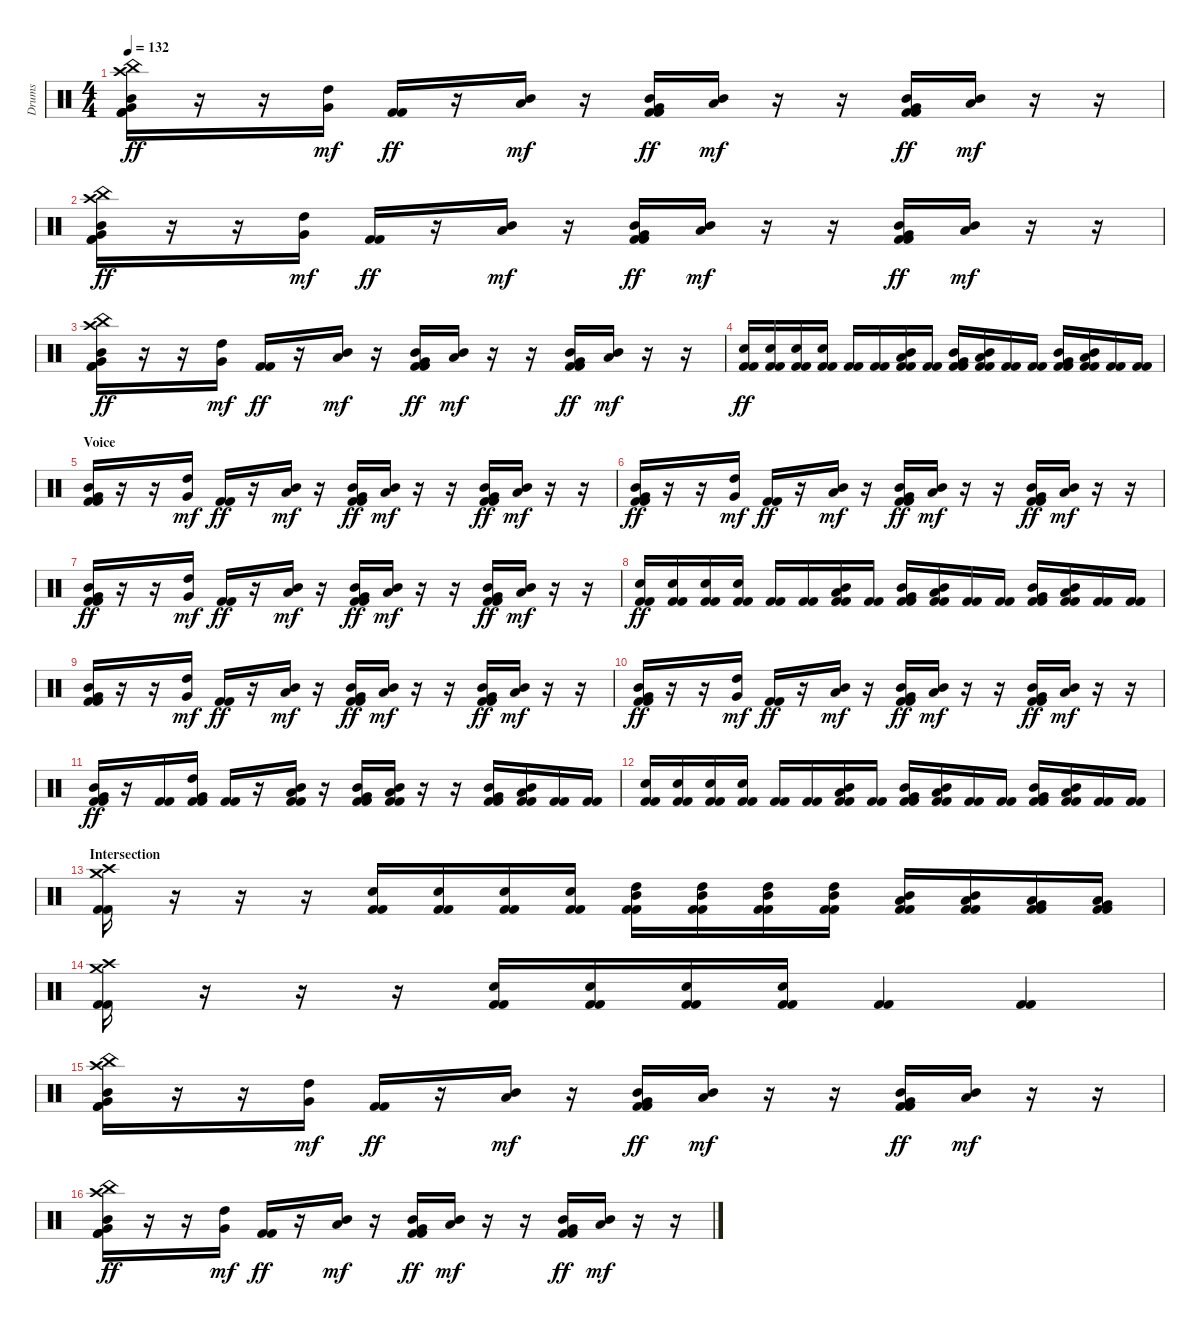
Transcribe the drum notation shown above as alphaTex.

\track ("Drums" "Drums") {instrument percussion}
\staff {score}
\articulation defaults
\ts (4 4)
\tempo 132
\clef neutral
\ks c
("China (hit)" "Mid Tom (hit)" "Very Low Tom (hit)" "Crash high (hit)" "Kick (hit) 2" "Kick (hit) 2").16{dy ff} r.16 r.16 ("High Tom (hit)" "Very Low Tom (hit)").16{dy mf} ("Kick (hit) 2" "Kick (hit) 2").16{dy ff} r.16 ("Mid Tom (hit)" "Low Tom (hit)").16{dy mf} r.16 ("Mid Tom (hit)" "Very Low Tom (hit)" "Kick (hit) 2" "Kick (hit) 2").16{dy ff} ("Low Tom (hit)" "Mid Tom (hit)").16{dy mf} r.16 r.16 ("Mid Tom (hit)" "Very Low Tom (hit)" "Kick (hit) 2" "Kick (hit) 2").16{dy ff} ("Mid Tom (hit)" "Low Tom (hit)").16{dy mf} r.16 r.16 |
("China (hit)" "Mid Tom (hit)" "Very Low Tom (hit)" "Crash high (hit)" "Kick (hit) 2" "Kick (hit) 2").16{dy ff} r.16 r.16 ("High Tom (hit)" "Very Low Tom (hit)").16{dy mf} ("Kick (hit) 2" "Kick (hit) 2").16{dy ff} r.16 ("Mid Tom (hit)" "Low Tom (hit)").16{dy mf} r.16 ("Mid Tom (hit)" "Very Low Tom (hit)" "Kick (hit) 2" "Kick (hit) 2").16{dy ff} ("Low Tom (hit)" "Mid Tom (hit)").16{dy mf} r.16 r.16 ("Mid Tom (hit)" "Very Low Tom (hit)" "Kick (hit) 2" "Kick (hit) 2").16{dy ff} ("Mid Tom (hit)" "Low Tom (hit)").16{dy mf} r.16 r.16 |
("China (hit)" "Mid Tom (hit)" "Very Low Tom (hit)" "Crash high (hit)" "Kick (hit) 2" "Kick (hit) 2").16{dy ff} r.16 r.16 ("High Tom (hit)" "Very Low Tom (hit)").16{dy mf} ("Kick (hit) 2" "Kick (hit) 2").16{dy ff} r.16 ("Mid Tom (hit)" "Low Tom (hit)").16{dy mf} r.16 ("Mid Tom (hit)" "Very Low Tom (hit)" "Kick (hit) 2" "Kick (hit) 2").16{dy ff} ("Low Tom (hit)" "Mid Tom (hit)").16{dy mf} r.16 r.16 ("Mid Tom (hit)" "Very Low Tom (hit)" "Kick (hit) 2" "Kick (hit) 2").16{dy ff} ("Mid Tom (hit)" "Low Tom (hit)").16{dy mf} r.16 r.16 |
("Electric Snare (hit)" "Kick (hit) 2" "Kick (hit) 2").16{dy ff} ("Electric Snare (hit)" "Kick (hit) 2" "Kick (hit) 2").16 ("Electric Snare (hit)" "Kick (hit) 2" "Kick (hit) 2").16 ("Electric Snare (hit)" "Kick (hit) 2" "Kick (hit) 2").16 ("Kick (hit) 2" "Kick (hit) 2").16 ("Kick (hit) 2" "Kick (hit) 2").16 ("Mid Tom (hit)" "Low Tom (hit)" "Kick (hit) 2" "Kick (hit) 2").16 ("Kick (hit) 2" "Kick (hit) 2").16 ("Mid Tom (hit)" "Very Low Tom (hit)" "Kick (hit) 2" "Kick (hit) 2").16 ("Low Tom (hit)" "Mid Tom (hit)" "Kick (hit) 2" "Kick (hit) 2").16 ("Kick (hit) 2" "Kick (hit) 2").16 ("Kick (hit) 2" "Kick (hit) 2").16 ("Mid Tom (hit)" "Very Low Tom (hit)" "Kick (hit) 2" "Kick (hit) 2").16 ("Mid Tom (hit)" "Low Tom (hit)" "Kick (hit) 2" "Kick (hit) 2").16 ("Kick (hit) 2" "Kick (hit) 2").16 ("Kick (hit) 2" "Kick (hit) 2").16 |
\section ("" "Voice")
("Mid Tom (hit)" "Very Low Tom (hit)" "Kick (hit) 2" "Kick (hit) 2").16 r.16 r.16 ("High Tom (hit)" "Very Low Tom (hit)").16{dy mf} ("Kick (hit) 2" "Kick (hit) 2").16{dy ff} r.16 ("Mid Tom (hit)" "Low Tom (hit)").16{dy mf} r.16 ("Mid Tom (hit)" "Very Low Tom (hit)" "Kick (hit) 2" "Kick (hit) 2").16{dy ff} ("Low Tom (hit)" "Mid Tom (hit)").16{dy mf} r.16 r.16 ("Mid Tom (hit)" "Very Low Tom (hit)" "Kick (hit) 2" "Kick (hit) 2").16{dy ff} ("Mid Tom (hit)" "Low Tom (hit)").16{dy mf} r.16 r.16 |
("Mid Tom (hit)" "Very Low Tom (hit)" "Kick (hit) 2" "Kick (hit) 2").16{dy ff} r.16 r.16 ("High Tom (hit)" "Very Low Tom (hit)").16{dy mf} ("Kick (hit) 2" "Kick (hit) 2").16{dy ff} r.16 ("Mid Tom (hit)" "Low Tom (hit)").16{dy mf} r.16 ("Mid Tom (hit)" "Very Low Tom (hit)" "Kick (hit) 2" "Kick (hit) 2").16{dy ff} ("Low Tom (hit)" "Mid Tom (hit)").16{dy mf} r.16 r.16 ("Mid Tom (hit)" "Very Low Tom (hit)" "Kick (hit) 2" "Kick (hit) 2").16{dy ff} ("Mid Tom (hit)" "Low Tom (hit)").16{dy mf} r.16 r.16 |
("Mid Tom (hit)" "Very Low Tom (hit)" "Kick (hit) 2" "Kick (hit) 2").16{dy ff} r.16 r.16 ("High Tom (hit)" "Very Low Tom (hit)").16{dy mf} ("Kick (hit) 2" "Kick (hit) 2").16{dy ff} r.16 ("Mid Tom (hit)" "Low Tom (hit)").16{dy mf} r.16 ("Mid Tom (hit)" "Very Low Tom (hit)" "Kick (hit) 2" "Kick (hit) 2").16{dy ff} ("Low Tom (hit)" "Mid Tom (hit)").16{dy mf} r.16 r.16 ("Mid Tom (hit)" "Very Low Tom (hit)" "Kick (hit) 2" "Kick (hit) 2").16{dy ff} ("Mid Tom (hit)" "Low Tom (hit)").16{dy mf} r.16 r.16 |
("Electric Snare (hit)" "Kick (hit) 2" "Kick (hit) 2").16{dy ff} ("Electric Snare (hit)" "Kick (hit) 2" "Kick (hit) 2").16 ("Electric Snare (hit)" "Kick (hit) 2" "Kick (hit) 2").16 ("Electric Snare (hit)" "Kick (hit) 2" "Kick (hit) 2").16 ("Kick (hit) 2" "Kick (hit) 2").16 ("Kick (hit) 2" "Kick (hit) 2").16 ("Mid Tom (hit)" "Low Tom (hit)" "Kick (hit) 2" "Kick (hit) 2").16 ("Kick (hit) 2" "Kick (hit) 2").16 ("Mid Tom (hit)" "Very Low Tom (hit)" "Kick (hit) 2" "Kick (hit) 2").16 ("Low Tom (hit)" "Mid Tom (hit)" "Kick (hit) 2" "Kick (hit) 2").16 ("Kick (hit) 2" "Kick (hit) 2").16 ("Kick (hit) 2" "Kick (hit) 2").16 ("Mid Tom (hit)" "Very Low Tom (hit)" "Kick (hit) 2" "Kick (hit) 2").16 ("Mid Tom (hit)" "Low Tom (hit)" "Kick (hit) 2" "Kick (hit) 2").16 ("Kick (hit) 2" "Kick (hit) 2").16 ("Kick (hit) 2" "Kick (hit) 2").16 |
("Mid Tom (hit)" "Very Low Tom (hit)" "Kick (hit) 2" "Kick (hit) 2").16 r.16 r.16 ("High Tom (hit)" "Very Low Tom (hit)").16{dy mf} ("Kick (hit) 2" "Kick (hit) 2").16{dy ff} r.16 ("Mid Tom (hit)" "Low Tom (hit)").16{dy mf} r.16 ("Mid Tom (hit)" "Very Low Tom (hit)" "Kick (hit) 2" "Kick (hit) 2").16{dy ff} ("Low Tom (hit)" "Mid Tom (hit)").16{dy mf} r.16 r.16 ("Mid Tom (hit)" "Very Low Tom (hit)" "Kick (hit) 2" "Kick (hit) 2").16{dy ff} ("Mid Tom (hit)" "Low Tom (hit)").16{dy mf} r.16 r.16 |
("Mid Tom (hit)" "Very Low Tom (hit)" "Kick (hit) 2" "Kick (hit) 2").16{dy ff} r.16 r.16 ("High Tom (hit)" "Very Low Tom (hit)").16{dy mf} ("Kick (hit) 2" "Kick (hit) 2").16{dy ff} r.16 ("Mid Tom (hit)" "Low Tom (hit)").16{dy mf} r.16 ("Mid Tom (hit)" "Very Low Tom (hit)" "Kick (hit) 2" "Kick (hit) 2").16{dy ff} ("Low Tom (hit)" "Mid Tom (hit)").16{dy mf} r.16 r.16 ("Mid Tom (hit)" "Very Low Tom (hit)" "Kick (hit) 2" "Kick (hit) 2").16{dy ff} ("Mid Tom (hit)" "Low Tom (hit)").16{dy mf} r.16 r.16 |
("Mid Tom (hit)" "Very Low Tom (hit)" "Kick (hit) 2" "Kick (hit) 2").16{dy ff} r.16 ("Kick (hit) 2" "Kick (hit) 2").16 ("High Tom (hit)" "Very Low Tom (hit)" "Kick (hit) 2" "Kick (hit) 2").16 ("Kick (hit) 2" "Kick (hit) 2").16 r.16 ("Mid Tom (hit)" "Low Tom (hit)" "Kick (hit) 2" "Kick (hit) 2").16 r.16 ("Mid Tom (hit)" "Very Low Tom (hit)" "Kick (hit) 2" "Kick (hit) 2").16 ("Low Tom (hit)" "Mid Tom (hit)" "Kick (hit) 2" "Kick (hit) 2").16 r.16 r.16 ("Mid Tom (hit)" "Very Low Tom (hit)" "Kick (hit) 2" "Kick (hit) 2").16 ("Mid Tom (hit)" "Low Tom (hit)" "Kick (hit) 2" "Kick (hit) 2").16 ("Kick (hit) 2" "Kick (hit) 2").16 ("Kick (hit) 2" "Kick (hit) 2").16 |
("Electric Snare (hit)" "Kick (hit) 2" "Kick (hit) 2").16 ("Electric Snare (hit)" "Kick (hit) 2" "Kick (hit) 2").16 ("Electric Snare (hit)" "Kick (hit) 2" "Kick (hit) 2").16 ("Electric Snare (hit)" "Kick (hit) 2" "Kick (hit) 2").16 ("Kick (hit) 2" "Kick (hit) 2").16 ("Kick (hit) 2" "Kick (hit) 2").16 ("Mid Tom (hit)" "Low Tom (hit)" "Kick (hit) 2" "Kick (hit) 2").16 ("Kick (hit) 2" "Kick (hit) 2").16 ("Mid Tom (hit)" "Very Low Tom (hit)" "Kick (hit) 2" "Kick (hit) 2").16 ("Low Tom (hit)" "Mid Tom (hit)" "Kick (hit) 2" "Kick (hit) 2").16 ("Kick (hit) 2" "Kick (hit) 2").16 ("Kick (hit) 2" "Kick (hit) 2").16 ("Mid Tom (hit)" "Very Low Tom (hit)" "Kick (hit) 2" "Kick (hit) 2").16 ("Mid Tom (hit)" "Low Tom (hit)" "Kick (hit) 2" "Kick (hit) 2").16 ("Kick (hit) 2" "Kick (hit) 2").16 ("Kick (hit) 2" "Kick (hit) 2").16 |
\section ("" "Intersection")
("Crash high (hit)" "Crash medium (hit)" "Kick (hit) 2" "Kick (hit) 2").16 r.16 r.16 r.16 ("Electric Snare (hit)" "Kick (hit) 2" "Kick (hit) 2").16 ("Electric Snare (hit)" "Kick (hit) 2" "Kick (hit) 2").16 ("Electric Snare (hit)" "Kick (hit) 2" "Kick (hit) 2").16 ("Electric Snare (hit)" "Kick (hit) 2" "Kick (hit) 2").16 ("High Tom (hit)" "Mid Tom (hit)" "Kick (hit) 2" "Kick (hit) 2").16 ("High Tom (hit)" "Mid Tom (hit)" "Kick (hit) 2" "Kick (hit) 2").16 ("High Tom (hit)" "Mid Tom (hit)" "Kick (hit) 2" "Kick (hit) 2").16 ("High Tom (hit)" "Mid Tom (hit)" "Kick (hit) 2" "Kick (hit) 2").16 ("Mid Tom (hit)" "Low Tom (hit)" "Kick (hit) 2" "Kick (hit) 2").16 ("Mid Tom (hit)" "Low Tom (hit)" "Kick (hit) 2" "Kick (hit) 2").16 ("Low Tom (hit)" "Very Low Tom (hit)" "Kick (hit) 2" "Kick (hit) 2").16 ("Very Low Tom (hit)" "Low Floor Tom (hit)" "Kick (hit) 2" "Kick (hit) 2").16 |
("Crash high (hit)" "Crash medium (hit)" "Kick (hit) 2" "Kick (hit) 2").16 r.16 r.16 r.16 ("Electric Snare (hit)" "Kick (hit) 2" "Kick (hit) 2").16 ("Electric Snare (hit)" "Kick (hit) 2" "Kick (hit) 2").16 ("Electric Snare (hit)" "Kick (hit) 2" "Kick (hit) 2").16 ("Electric Snare (hit)" "Kick (hit) 2" "Kick (hit) 2").16 ("Kick (hit) 2" "Kick (hit) 2").4 ("Kick (hit) 2" "Kick (hit) 2").4 |
("China (hit)" "Mid Tom (hit)" "Very Low Tom (hit)" "Crash high (hit)" "Kick (hit) 2" "Kick (hit) 2").16 r.16 r.16 ("High Tom (hit)" "Very Low Tom (hit)").16{dy mf} ("Kick (hit) 2" "Kick (hit) 2").16{dy ff} r.16 ("Mid Tom (hit)" "Low Tom (hit)").16{dy mf} r.16 ("Mid Tom (hit)" "Very Low Tom (hit)" "Kick (hit) 2" "Kick (hit) 2").16{dy ff} ("Low Tom (hit)" "Mid Tom (hit)").16{dy mf} r.16 r.16 ("Mid Tom (hit)" "Very Low Tom (hit)" "Kick (hit) 2" "Kick (hit) 2").16{dy ff} ("Mid Tom (hit)" "Low Tom (hit)").16{dy mf} r.16 r.16 |
("China (hit)" "Mid Tom (hit)" "Very Low Tom (hit)" "Crash high (hit)" "Kick (hit) 2" "Kick (hit) 2").16{dy ff} r.16 r.16 ("High Tom (hit)" "Very Low Tom (hit)").16{dy mf} ("Kick (hit) 2" "Kick (hit) 2").16{dy ff} r.16 ("Mid Tom (hit)" "Low Tom (hit)").16{dy mf} r.16 ("Mid Tom (hit)" "Very Low Tom (hit)" "Kick (hit) 2" "Kick (hit) 2").16{dy ff} ("Low Tom (hit)" "Mid Tom (hit)").16{dy mf} r.16 r.16 ("Mid Tom (hit)" "Very Low Tom (hit)" "Kick (hit) 2" "Kick (hit) 2").16{dy ff} ("Mid Tom (hit)" "Low Tom (hit)").16{dy mf} r.16 r.16
